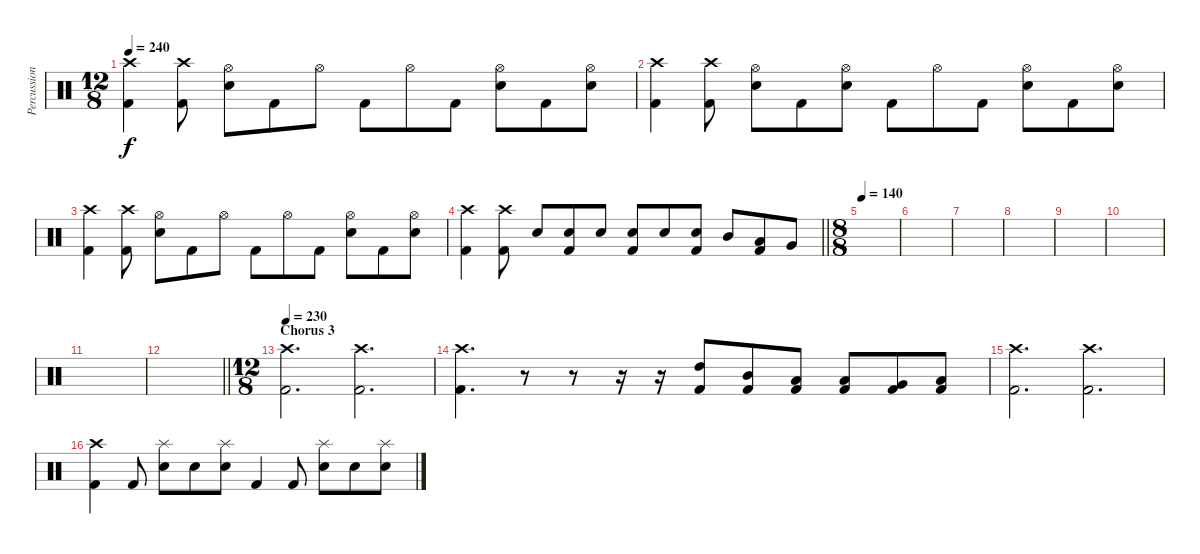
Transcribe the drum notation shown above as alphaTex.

\track ("Percussions" "Percussion") {instrument percussion}
\staff {score}
\articulation defaults
\ts (12 8)
\tempo 240
\clef neutral
\ks c
("Crash high (hit)" "Kick (hit) 2").4{dy f} ("Crash high (hit)" "Kick (hit) 2").8 ("Hi-Hat (open)" "Electric Snare (hit)").8 "Kick (hit) 2".8 "Hi-Hat (open)".8 "Kick (hit) 2".8 "Hi-Hat (open)".8 "Kick (hit) 2".8 ("Hi-Hat (open)" "Electric Snare (hit)").8 "Kick (hit) 2".8 ("Hi-Hat (open)" "Electric Snare (hit)").8 |
("Crash high (hit)" "Kick (hit) 2").4 ("Crash high (hit)" "Kick (hit) 2").8 ("Hi-Hat (open)" "Electric Snare (hit)").8 "Kick (hit) 2".8 ("Hi-Hat (open)" "Electric Snare (hit)").8 "Kick (hit) 2".8 "Hi-Hat (open)".8 "Kick (hit) 2".8 ("Hi-Hat (open)" "Electric Snare (hit)").8 "Kick (hit) 2".8 ("Hi-Hat (open)" "Electric Snare (hit)").8 |
("Crash high (hit)" "Kick (hit) 2").4 ("Crash high (hit)" "Kick (hit) 2").8 ("Hi-Hat (open)" "Electric Snare (hit)").8 "Kick (hit) 2".8 "Hi-Hat (open)".8 "Kick (hit) 2".8 "Hi-Hat (open)".8 "Kick (hit) 2".8 ("Hi-Hat (open)" "Electric Snare (hit)").8 "Kick (hit) 2".8 ("Hi-Hat (open)" "Electric Snare (hit)").8 |
\barLineRight lightlight
("Crash high (hit)" "Kick (hit) 2").4 ("Crash high (hit)" "Kick (hit) 2").8 "Electric Snare (hit)".8 ("Electric Snare (hit)" "Kick (hit) 2").8 "Electric Snare (hit)".8 ("Electric Snare (hit)" "Kick (hit) 2").8 "Electric Snare (hit)".8 ("Electric Snare (hit)" "Kick (hit) 2").8 "Mid Tom (hit)".8 ("Low Tom (hit)" "Kick (hit) 2").8 "Very Low Tom (hit)".8 |
\ts (8 8)
\tempo 140
|
|
|
|
|
|
|
\barLineRight lightlight
|
\ts (12 8)
\section ("" "Chorus 3")
\tempo 230
("Crash high (hit)" "Kick (hit) 2").2{d} ("Crash high (hit)" "Kick (hit) 2").2{d} |
("Crash high (hit)" "Kick (hit) 2").4{d} r.8 r.8 r.16 r.16 ("High Tom (hit)" "Kick (hit) 2").8 ("Mid Tom (hit)" "Kick (hit) 2").8 ("Low Tom (hit)" "Kick (hit) 2").8 ("Low Tom (hit)" "Kick (hit) 2").8 ("Very Low Tom (hit)" "Kick (hit) 2").8 ("Low Floor Tom (hit)" "Kick (hit) 2").8 |
("Crash high (hit)" "Kick (hit) 2").2{d} ("Crash high (hit)" "Kick (hit) 2").2{d} |
("Crash high (hit)" "Kick (hit) 2").4 "Kick (hit) 2".8 ("Splash (hit)" "Electric Snare (hit)").8 "Electric Snare (hit)".8 ("Splash (hit)" "Electric Snare (hit)").8 "Kick (hit) 2".4 "Kick (hit) 2".8 ("Splash (hit)" "Electric Snare (hit)").8 "Electric Snare (hit)".8 ("Splash (hit)" "Electric Snare (hit)").8
